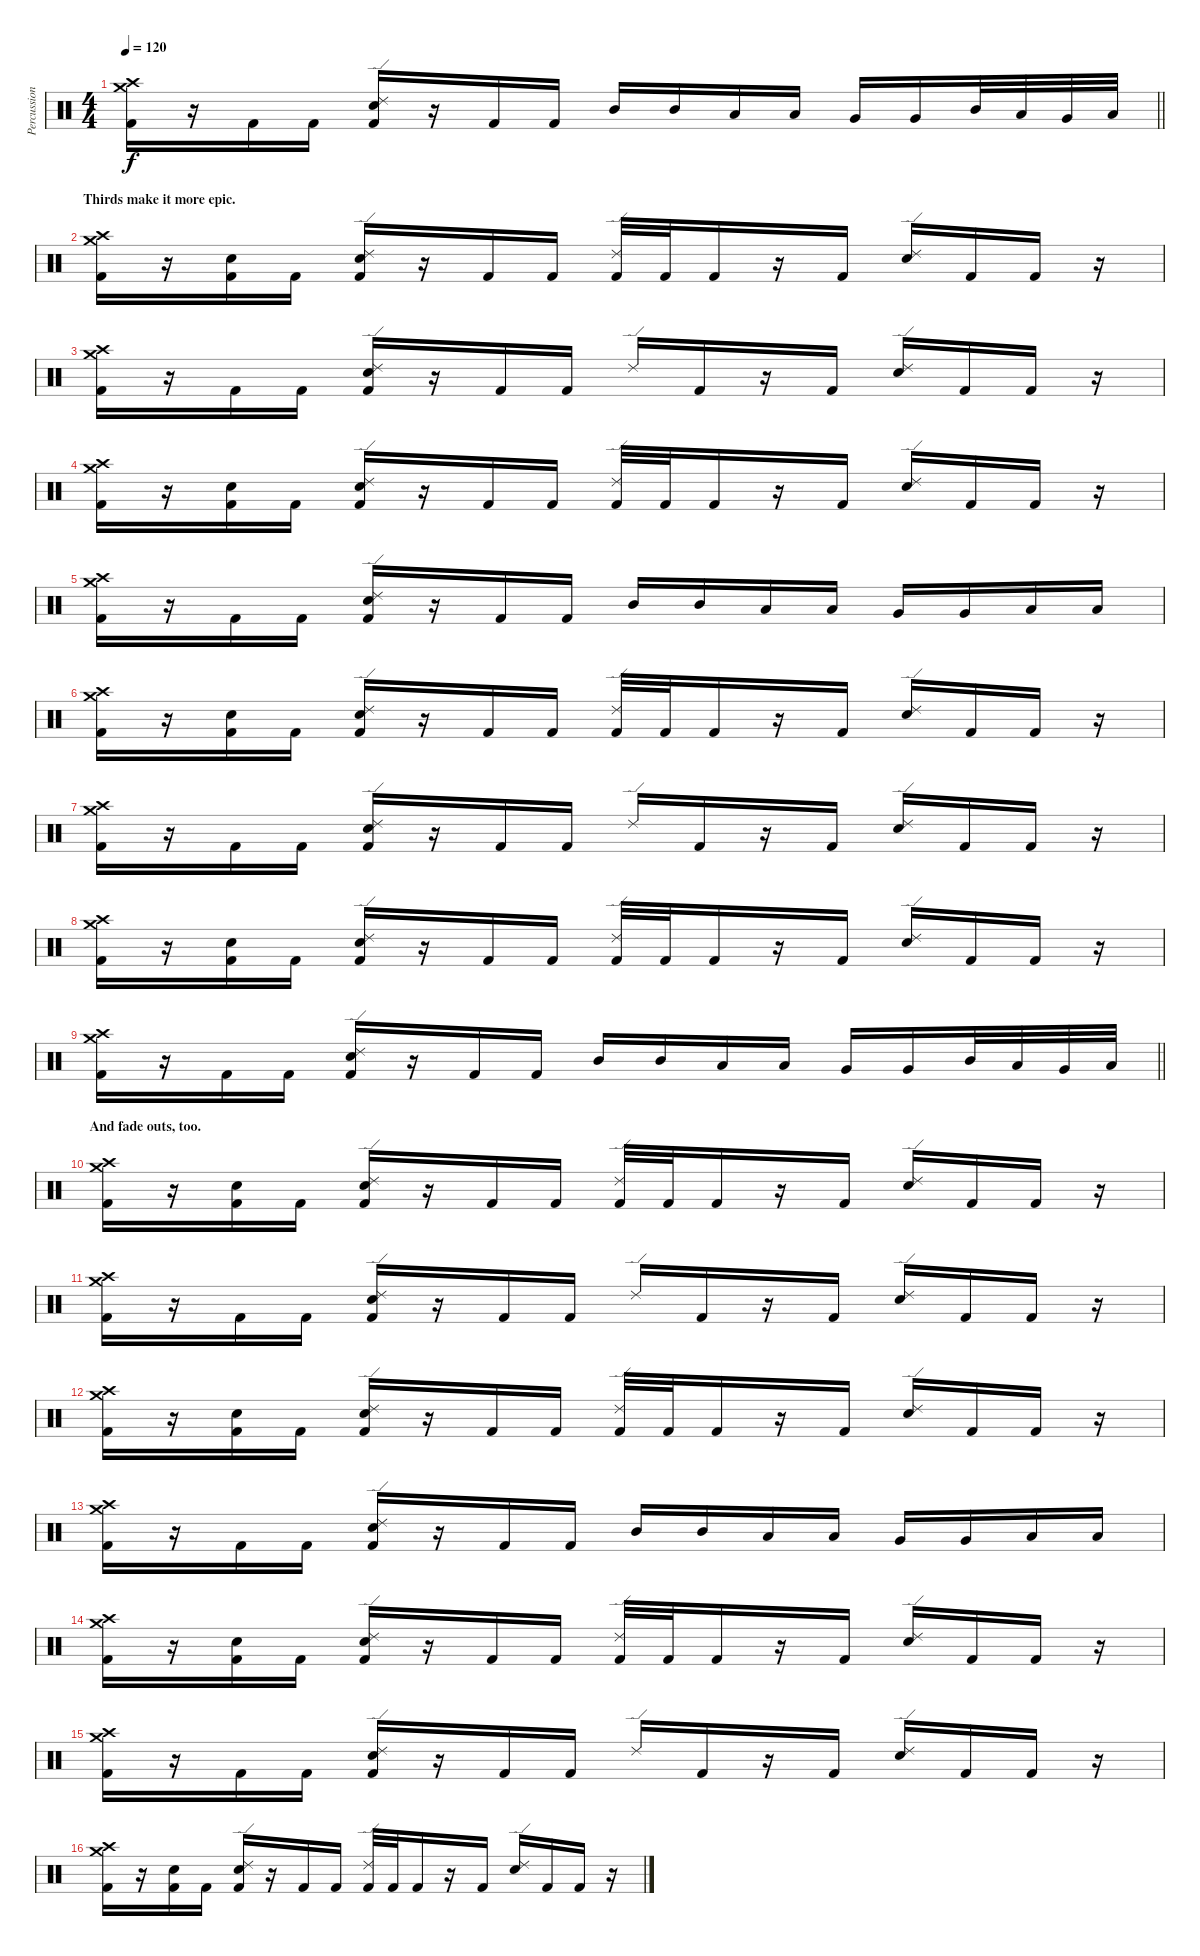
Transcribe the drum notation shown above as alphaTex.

\track ("Percussion" "Percussion") {instrument percussion}
\staff {score}
\articulation defaults
\ts (4 4)
\tempo 120
\clef neutral
\barLineRight lightlight
\ks c
("Crash high (hit)" "Crash medium (hit)" "Kick (hit) 2").16{dy f} r.16 "Kick (hit) 2".16 "Kick (hit) 2".16 ("Ride (edge) 2" "Electric Snare (hit)" "Kick (hit) 2").16 r.16 "Kick (hit) 2".16 "Kick (hit) 2".16 "Mid Tom (hit)".16 "Mid Tom (hit)".16 "Low Tom (hit)".16 "Low Tom (hit)".16 "Very Low Tom (hit)".16 "Very Low Tom (hit)".16 "Mid Tom (hit)".32 "Low Tom (hit)".32 "Very Low Tom (hit)".32 "Low Floor Tom (hit)".32 |
\section ("" "Thirds make it more epic.")
("Crash high (hit)" "Crash medium (hit)" "Kick (hit) 2").16 r.16 ("Electric Snare (hit)" "Kick (hit) 2").16 "Kick (hit) 2".16 ("Ride (edge) 2" "Electric Snare (hit)" "Kick (hit) 2").16 r.16 "Kick (hit) 2".16 "Kick (hit) 2".16 ("Ride (edge) 2" "Kick (hit) 2").32 "Kick (hit) 2".32 "Kick (hit) 2".16 r.16 "Kick (hit) 2".16 ("Ride (edge) 2" "Electric Snare (hit)").16 "Kick (hit) 2".16 "Kick (hit) 2".16 r.16 |
("Crash high (hit)" "Crash medium (hit)" "Kick (hit) 2").16 r.16 "Kick (hit) 2".16 "Kick (hit) 2".16 ("Ride (edge) 2" "Electric Snare (hit)" "Kick (hit) 2").16 r.16 "Kick (hit) 2".16 "Kick (hit) 2".16 "Ride (edge) 2".16 "Kick (hit) 2".16 r.16 "Kick (hit) 2".16 ("Ride (edge) 2" "Electric Snare (hit)").16 "Kick (hit) 2".16 "Kick (hit) 2".16 r.16 |
("Crash high (hit)" "Crash medium (hit)" "Kick (hit) 2").16 r.16 ("Electric Snare (hit)" "Kick (hit) 2").16 "Kick (hit) 2".16 ("Ride (edge) 2" "Electric Snare (hit)" "Kick (hit) 2").16 r.16 "Kick (hit) 2".16 "Kick (hit) 2".16 ("Ride (edge) 2" "Kick (hit) 2").32 "Kick (hit) 2".32 "Kick (hit) 2".16 r.16 "Kick (hit) 2".16 ("Ride (edge) 2" "Electric Snare (hit)").16 "Kick (hit) 2".16 "Kick (hit) 2".16 r.16 |
("Crash high (hit)" "Crash medium (hit)" "Kick (hit) 2").16 r.16 "Kick (hit) 2".16 "Kick (hit) 2".16 ("Ride (edge) 2" "Electric Snare (hit)" "Kick (hit) 2").16 r.16 "Kick (hit) 2".16 "Kick (hit) 2".16 "Mid Tom (hit)".16 "Mid Tom (hit)".16 "Low Tom (hit)".16 "Low Tom (hit)".16 "Very Low Tom (hit)".16 "Very Low Tom (hit)".16 "Low Floor Tom (hit)".16 "Low Floor Tom (hit)".16 |
("Crash high (hit)" "Crash medium (hit)" "Kick (hit) 2").16 r.16 ("Electric Snare (hit)" "Kick (hit) 2").16 "Kick (hit) 2".16 ("Ride (edge) 2" "Electric Snare (hit)" "Kick (hit) 2").16 r.16 "Kick (hit) 2".16 "Kick (hit) 2".16 ("Ride (edge) 2" "Kick (hit) 2").32 "Kick (hit) 2".32 "Kick (hit) 2".16 r.16 "Kick (hit) 2".16 ("Ride (edge) 2" "Electric Snare (hit)").16 "Kick (hit) 2".16 "Kick (hit) 2".16 r.16 |
("Crash high (hit)" "Crash medium (hit)" "Kick (hit) 2").16 r.16 "Kick (hit) 2".16 "Kick (hit) 2".16 ("Ride (edge) 2" "Electric Snare (hit)" "Kick (hit) 2").16 r.16 "Kick (hit) 2".16 "Kick (hit) 2".16 "Ride (edge) 2".16 "Kick (hit) 2".16 r.16 "Kick (hit) 2".16 ("Ride (edge) 2" "Electric Snare (hit)").16 "Kick (hit) 2".16 "Kick (hit) 2".16 r.16 |
("Crash high (hit)" "Crash medium (hit)" "Kick (hit) 2").16 r.16 ("Electric Snare (hit)" "Kick (hit) 2").16 "Kick (hit) 2".16 ("Ride (edge) 2" "Electric Snare (hit)" "Kick (hit) 2").16 r.16 "Kick (hit) 2".16 "Kick (hit) 2".16 ("Ride (edge) 2" "Kick (hit) 2").32 "Kick (hit) 2".32 "Kick (hit) 2".16 r.16 "Kick (hit) 2".16 ("Ride (edge) 2" "Electric Snare (hit)").16 "Kick (hit) 2".16 "Kick (hit) 2".16 r.16 |
\barLineRight lightlight
("Crash high (hit)" "Crash medium (hit)" "Kick (hit) 2").16 r.16 "Kick (hit) 2".16 "Kick (hit) 2".16 ("Ride (edge) 2" "Electric Snare (hit)" "Kick (hit) 2").16 r.16 "Kick (hit) 2".16 "Kick (hit) 2".16 "Mid Tom (hit)".16 "Mid Tom (hit)".16 "Low Tom (hit)".16 "Low Tom (hit)".16 "Very Low Tom (hit)".16 "Very Low Tom (hit)".16 "Mid Tom (hit)".32 "Low Tom (hit)".32 "Very Low Tom (hit)".32 "Low Floor Tom (hit)".32 |
\section ("" "And fade outs, too.")
("Crash high (hit)" "Crash medium (hit)" "Kick (hit) 2").16 r.16 ("Electric Snare (hit)" "Kick (hit) 2").16 "Kick (hit) 2".16 ("Ride (edge) 2" "Electric Snare (hit)" "Kick (hit) 2").16 r.16 "Kick (hit) 2".16 "Kick (hit) 2".16 ("Ride (edge) 2" "Kick (hit) 2").32 "Kick (hit) 2".32 "Kick (hit) 2".16 r.16 "Kick (hit) 2".16 ("Ride (edge) 2" "Electric Snare (hit)").16 "Kick (hit) 2".16 "Kick (hit) 2".16 r.16 |
("Crash high (hit)" "Crash medium (hit)" "Kick (hit) 2").16 r.16 "Kick (hit) 2".16 "Kick (hit) 2".16 ("Ride (edge) 2" "Electric Snare (hit)" "Kick (hit) 2").16 r.16 "Kick (hit) 2".16 "Kick (hit) 2".16 "Ride (edge) 2".16 "Kick (hit) 2".16 r.16 "Kick (hit) 2".16 ("Ride (edge) 2" "Electric Snare (hit)").16 "Kick (hit) 2".16 "Kick (hit) 2".16 r.16 |
("Crash high (hit)" "Crash medium (hit)" "Kick (hit) 2").16 r.16 ("Electric Snare (hit)" "Kick (hit) 2").16 "Kick (hit) 2".16 ("Ride (edge) 2" "Electric Snare (hit)" "Kick (hit) 2").16 r.16 "Kick (hit) 2".16 "Kick (hit) 2".16 ("Ride (edge) 2" "Kick (hit) 2").32 "Kick (hit) 2".32 "Kick (hit) 2".16 r.16 "Kick (hit) 2".16 ("Ride (edge) 2" "Electric Snare (hit)").16 "Kick (hit) 2".16 "Kick (hit) 2".16 r.16 |
("Crash high (hit)" "Crash medium (hit)" "Kick (hit) 2").16 r.16 "Kick (hit) 2".16 "Kick (hit) 2".16 ("Ride (edge) 2" "Electric Snare (hit)" "Kick (hit) 2").16 r.16 "Kick (hit) 2".16 "Kick (hit) 2".16 "Mid Tom (hit)".16 "Mid Tom (hit)".16 "Low Tom (hit)".16 "Low Tom (hit)".16 "Very Low Tom (hit)".16 "Very Low Tom (hit)".16 "Low Floor Tom (hit)".16 "Low Floor Tom (hit)".16 |
("Crash high (hit)" "Crash medium (hit)" "Kick (hit) 2").16 r.16 ("Electric Snare (hit)" "Kick (hit) 2").16 "Kick (hit) 2".16 ("Ride (edge) 2" "Electric Snare (hit)" "Kick (hit) 2").16 r.16 "Kick (hit) 2".16 "Kick (hit) 2".16 ("Ride (edge) 2" "Kick (hit) 2").32 "Kick (hit) 2".32 "Kick (hit) 2".16 r.16 "Kick (hit) 2".16 ("Ride (edge) 2" "Electric Snare (hit)").16 "Kick (hit) 2".16 "Kick (hit) 2".16 r.16 |
("Crash high (hit)" "Crash medium (hit)" "Kick (hit) 2").16 r.16 "Kick (hit) 2".16 "Kick (hit) 2".16 ("Ride (edge) 2" "Electric Snare (hit)" "Kick (hit) 2").16 r.16 "Kick (hit) 2".16 "Kick (hit) 2".16 "Ride (edge) 2".16 "Kick (hit) 2".16 r.16 "Kick (hit) 2".16 ("Ride (edge) 2" "Electric Snare (hit)").16 "Kick (hit) 2".16 "Kick (hit) 2".16 r.16 |
("Crash high (hit)" "Crash medium (hit)" "Kick (hit) 2").16 r.16 ("Electric Snare (hit)" "Kick (hit) 2").16 "Kick (hit) 2".16 ("Ride (edge) 2" "Electric Snare (hit)" "Kick (hit) 2").16 r.16 "Kick (hit) 2".16 "Kick (hit) 2".16 ("Ride (edge) 2" "Kick (hit) 2").32 "Kick (hit) 2".32 "Kick (hit) 2".16 r.16 "Kick (hit) 2".16 ("Ride (edge) 2" "Electric Snare (hit)").16 "Kick (hit) 2".16 "Kick (hit) 2".16 r.16
